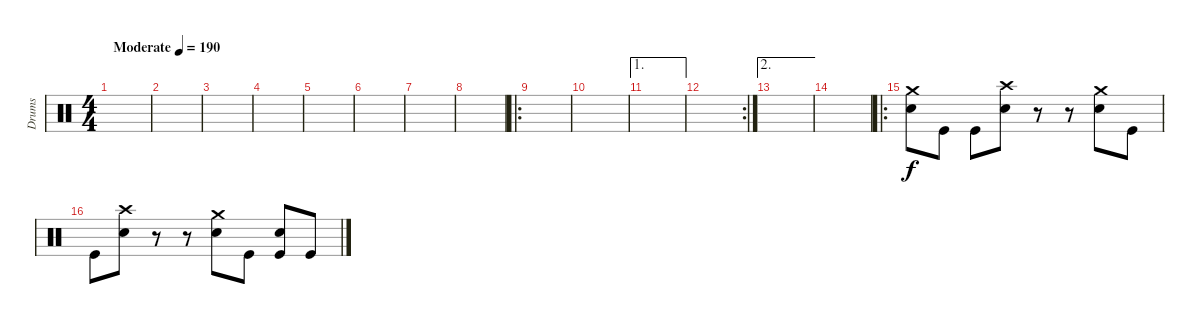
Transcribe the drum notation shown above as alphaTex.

\track ("Drums" "Drums") {instrument percussion}
\staff {score}
\articulation defaults
\ts (4 4)
\tempo (190 "Moderate")
\clef neutral
\ks c
|
|
|
|
|
|
|
|
\ro
|
|
\ae 1
|
\rc 2
|
\ae 2
|
|
\ro
("Crash medium (hit)" "Snare (hit) 2").8 "Kick (hit)".8 "Kick (hit)".8 ("Crash high (hit)" "Snare (hit) 2").8 r.8 r.8 ("Crash medium (hit)" "Snare (hit) 2").8 "Kick (hit)".8 |
"Kick (hit)".8 ("Crash high (hit)" "Snare (hit) 2").8 r.8 r.8 ("Crash medium (hit)" "Snare (hit) 2").8 "Kick (hit)".8 ("Snare (hit) 2" "Kick (hit)").8 "Kick (hit)".8
